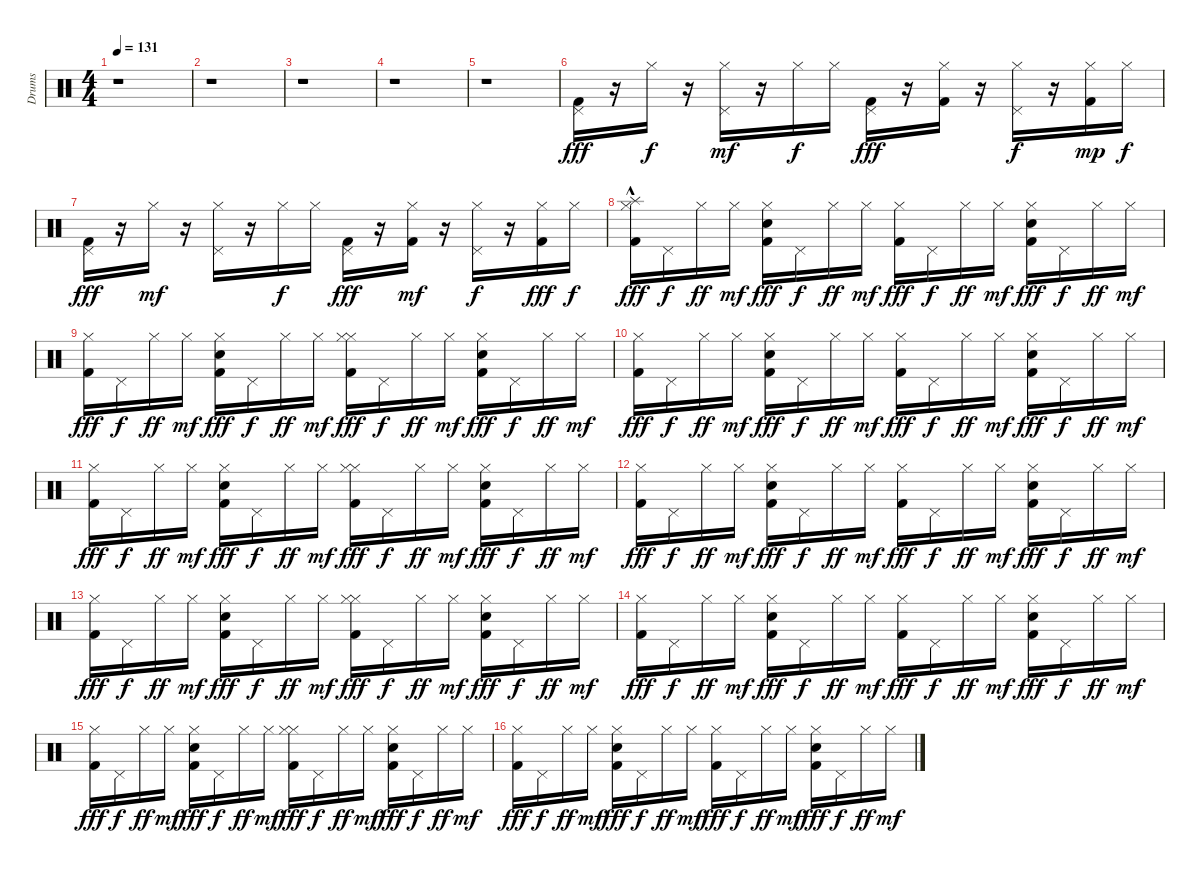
\track ("Drums" "Drums") {instrument percussion}
\staff {score}
\articulation defaults
\ts (4 4)
\tempo 131
\clef neutral
\ks c
r.1{dy f} |
r.1 |
r.1 |
r.1 |
r.1 |
("Kick (hit) 2" "Pedal Hi-Hat (hit)").16{dy fff} r.16 "Hi-Hat (closed)".16{dy f} r.16 ("Pedal Hi-Hat (hit)" "Hi-Hat (closed)").16{dy mf} r.16 "Hi-Hat (closed)".16{dy f} "Hi-Hat (closed)".16 ("Kick (hit) 2" "Pedal Hi-Hat (hit)").16{dy fff} r.16 ("Kick (hit) 2" "Hi-Hat (closed)").16 r.16 ("Pedal Hi-Hat (hit)" "Hi-Hat (closed)").16{dy f} r.16 ("Kick (hit) 2" "Hi-Hat (closed)").16{dy mp} "Hi-Hat (closed)".16{dy f} |
("Kick (hit) 2" "Pedal Hi-Hat (hit)").16{dy fff} r.16 "Hi-Hat (closed)".16{dy mf} r.16 ("Pedal Hi-Hat (hit)" "Hi-Hat (closed)").16 r.16 "Hi-Hat (closed)".16{dy f} "Hi-Hat (closed)".16 ("Kick (hit) 2" "Pedal Hi-Hat (hit)").16{dy fff} r.16 ("Kick (hit) 2" "Hi-Hat (closed)").16{dy mf} r.16 ("Pedal Hi-Hat (hit)" "Hi-Hat (closed)").16{dy f} r.16 ("Kick (hit) 2" "Hi-Hat (closed)").16{dy fff} "Hi-Hat (closed)".16{dy f} |
("Kick (hit) 2" "Splash (hit)"{hac} "Hi-Hat (closed)").16{dy fff} "Pedal Hi-Hat (hit)".16{dy f} "Hi-Hat (closed)".16{dy ff} "Hi-Hat (closed)".16{dy mf} ("Kick (hit) 2" "Hand Clap (hit)" "Hi-Hat (closed)").16{dy fff} "Pedal Hi-Hat (hit)".16{dy f} "Hi-Hat (closed)".16{dy ff} "Hi-Hat (closed)".16{dy mf} ("Kick (hit) 2" "Hi-Hat (closed)").16{dy fff} "Pedal Hi-Hat (hit)".16{dy f} "Hi-Hat (closed)".16{dy ff} "Hi-Hat (closed)".16{dy mf} ("Kick (hit) 2" "Hand Clap (hit)" "Hi-Hat (closed)").16{dy fff} "Pedal Hi-Hat (hit)".16{dy f} "Hi-Hat (closed)".16{dy ff} "Hi-Hat (closed)".16{dy mf} |
("Kick (hit) 2" "Hi-Hat (closed)").16{dy fff} "Pedal Hi-Hat (hit)".16{dy f} "Hi-Hat (closed)".16{dy ff} "Hi-Hat (closed)".16{dy mf} ("Kick (hit) 2" "Hand Clap (hit)" "Hi-Hat (closed)").16{dy fff} "Pedal Hi-Hat (hit)".16{dy f} "Hi-Hat (closed)".16{dy ff} "Hi-Hat (closed)".16{dy mf} ("Kick (hit) 2" "Hi-Hat (closed)" "Hi-Hat (closed)").16{dy fff} "Pedal Hi-Hat (hit)".16{dy f} "Hi-Hat (closed)".16{dy ff} "Hi-Hat (closed)".16{dy mf} ("Kick (hit) 2" "Hand Clap (hit)" "Hi-Hat (closed)").16{dy fff} "Pedal Hi-Hat (hit)".16{dy f} "Hi-Hat (closed)".16{dy ff} "Hi-Hat (closed)".16{dy mf} |
("Kick (hit) 2" "Hi-Hat (closed)").16{dy fff} "Pedal Hi-Hat (hit)".16{dy f} "Hi-Hat (closed)".16{dy ff} "Hi-Hat (closed)".16{dy mf} ("Kick (hit) 2" "Hand Clap (hit)" "Hi-Hat (closed)").16{dy fff} "Pedal Hi-Hat (hit)".16{dy f} "Hi-Hat (closed)".16{dy ff} "Hi-Hat (closed)".16{dy mf} ("Kick (hit) 2" "Hi-Hat (closed)").16{dy fff} "Pedal Hi-Hat (hit)".16{dy f} "Hi-Hat (closed)".16{dy ff} "Hi-Hat (closed)".16{dy mf} ("Kick (hit) 2" "Hand Clap (hit)" "Hi-Hat (closed)").16{dy fff} "Pedal Hi-Hat (hit)".16{dy f} "Hi-Hat (closed)".16{dy ff} "Hi-Hat (closed)".16{dy mf} |
("Kick (hit) 2" "Hi-Hat (closed)").16{dy fff} "Pedal Hi-Hat (hit)".16{dy f} "Hi-Hat (closed)".16{dy ff} "Hi-Hat (closed)".16{dy mf} ("Kick (hit) 2" "Hand Clap (hit)" "Hi-Hat (closed)").16{dy fff} "Pedal Hi-Hat (hit)".16{dy f} "Hi-Hat (closed)".16{dy ff} "Hi-Hat (closed)".16{dy mf} ("Kick (hit) 2" "Hi-Hat (closed)" "Hi-Hat (closed)").16{dy fff} "Pedal Hi-Hat (hit)".16{dy f} "Hi-Hat (closed)".16{dy ff} "Hi-Hat (closed)".16{dy mf} ("Kick (hit) 2" "Hand Clap (hit)" "Hi-Hat (closed)").16{dy fff} "Pedal Hi-Hat (hit)".16{dy f} "Hi-Hat (closed)".16{dy ff} "Hi-Hat (closed)".16{dy mf} |
("Kick (hit) 2" "Hi-Hat (closed)").16{dy fff} "Pedal Hi-Hat (hit)".16{dy f} "Hi-Hat (closed)".16{dy ff} "Hi-Hat (closed)".16{dy mf} ("Kick (hit) 2" "Hand Clap (hit)" "Hi-Hat (closed)").16{dy fff} "Pedal Hi-Hat (hit)".16{dy f} "Hi-Hat (closed)".16{dy ff} "Hi-Hat (closed)".16{dy mf} ("Kick (hit) 2" "Hi-Hat (closed)").16{dy fff} "Pedal Hi-Hat (hit)".16{dy f} "Hi-Hat (closed)".16{dy ff} "Hi-Hat (closed)".16{dy mf} ("Kick (hit) 2" "Hand Clap (hit)" "Hi-Hat (closed)").16{dy fff} "Pedal Hi-Hat (hit)".16{dy f} "Hi-Hat (closed)".16{dy ff} "Hi-Hat (closed)".16{dy mf} |
("Kick (hit) 2" "Hi-Hat (closed)").16{dy fff} "Pedal Hi-Hat (hit)".16{dy f} "Hi-Hat (closed)".16{dy ff} "Hi-Hat (closed)".16{dy mf} ("Kick (hit) 2" "Hand Clap (hit)" "Hi-Hat (closed)").16{dy fff} "Pedal Hi-Hat (hit)".16{dy f} "Hi-Hat (closed)".16{dy ff} "Hi-Hat (closed)".16{dy mf} ("Kick (hit) 2" "Hi-Hat (closed)" "Hi-Hat (closed)").16{dy fff} "Pedal Hi-Hat (hit)".16{dy f} "Hi-Hat (closed)".16{dy ff} "Hi-Hat (closed)".16{dy mf} ("Kick (hit) 2" "Hand Clap (hit)" "Hi-Hat (closed)").16{dy fff} "Pedal Hi-Hat (hit)".16{dy f} "Hi-Hat (closed)".16{dy ff} "Hi-Hat (closed)".16{dy mf} |
("Kick (hit) 2" "Hi-Hat (closed)").16{dy fff} "Pedal Hi-Hat (hit)".16{dy f} "Hi-Hat (closed)".16{dy ff} "Hi-Hat (closed)".16{dy mf} ("Kick (hit) 2" "Hand Clap (hit)" "Hi-Hat (closed)").16{dy fff} "Pedal Hi-Hat (hit)".16{dy f} "Hi-Hat (closed)".16{dy ff} "Hi-Hat (closed)".16{dy mf} ("Kick (hit) 2" "Hi-Hat (closed)").16{dy fff} "Pedal Hi-Hat (hit)".16{dy f} "Hi-Hat (closed)".16{dy ff} "Hi-Hat (closed)".16{dy mf} ("Kick (hit) 2" "Hand Clap (hit)" "Hi-Hat (closed)").16{dy fff} "Pedal Hi-Hat (hit)".16{dy f} "Hi-Hat (closed)".16{dy ff} "Hi-Hat (closed)".16{dy mf} |
("Kick (hit) 2" "Hi-Hat (closed)").16{dy fff} "Pedal Hi-Hat (hit)".16{dy f} "Hi-Hat (closed)".16{dy ff} "Hi-Hat (closed)".16{dy mf} ("Kick (hit) 2" "Hand Clap (hit)" "Hi-Hat (closed)").16{dy fff} "Pedal Hi-Hat (hit)".16{dy f} "Hi-Hat (closed)".16{dy ff} "Hi-Hat (closed)".16{dy mf} ("Kick (hit) 2" "Hi-Hat (closed)" "Hi-Hat (closed)").16{dy fff} "Pedal Hi-Hat (hit)".16{dy f} "Hi-Hat (closed)".16{dy ff} "Hi-Hat (closed)".16{dy mf} ("Kick (hit) 2" "Hand Clap (hit)" "Hi-Hat (closed)").16{dy fff} "Pedal Hi-Hat (hit)".16{dy f} "Hi-Hat (closed)".16{dy ff} "Hi-Hat (closed)".16{dy mf} |
("Kick (hit) 2" "Hi-Hat (closed)").16{dy fff} "Pedal Hi-Hat (hit)".16{dy f} "Hi-Hat (closed)".16{dy ff} "Hi-Hat (closed)".16{dy mf} ("Kick (hit) 2" "Hand Clap (hit)" "Hi-Hat (closed)").16{dy fff} "Pedal Hi-Hat (hit)".16{dy f} "Hi-Hat (closed)".16{dy ff} "Hi-Hat (closed)".16{dy mf} ("Kick (hit) 2" "Hi-Hat (closed)").16{dy fff} "Pedal Hi-Hat (hit)".16{dy f} "Hi-Hat (closed)".16{dy ff} "Hi-Hat (closed)".16{dy mf} ("Kick (hit) 2" "Hand Clap (hit)" "Hi-Hat (closed)").16{dy fff} "Pedal Hi-Hat (hit)".16{dy f} "Hi-Hat (closed)".16{dy ff} "Hi-Hat (closed)".16{dy mf}
